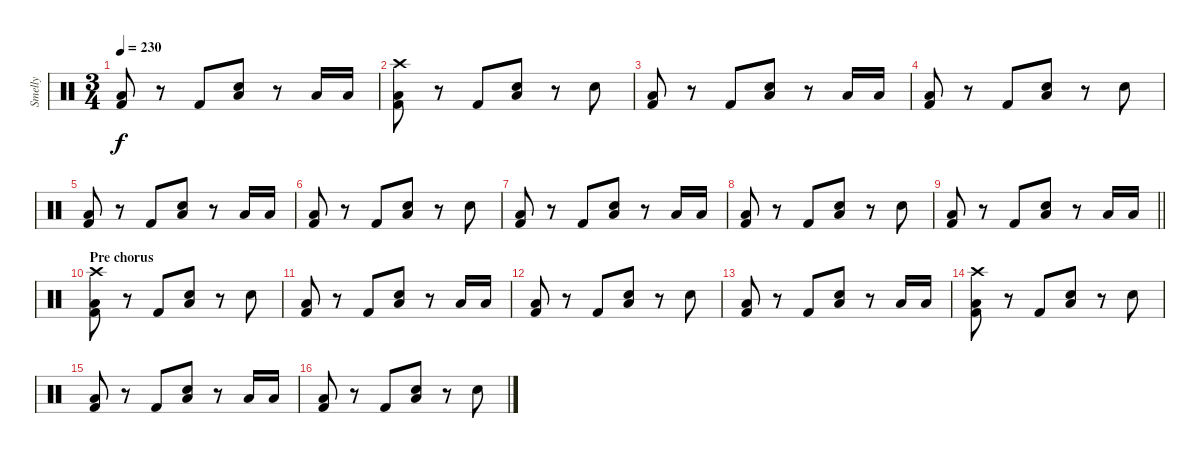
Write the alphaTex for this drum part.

\track ("Smelly" "Smelly") {instrument percussion}
\staff {score}
\articulation defaults
\ts (3 4)
\tempo 230
\clef neutral
\ks c
("Low Floor Tom (hit)" "Kick (hit) 2").8{dy f} r.8 "Kick (hit) 2".8 ("Low Floor Tom (hit)" "Electric Snare (hit)").8 r.8 "Low Floor Tom (hit)".16 "Low Floor Tom (hit)".16 |
("Crash high (hit)" "Low Floor Tom (hit)" "Kick (hit) 2").8 r.8 "Kick (hit) 2".8 ("Low Floor Tom (hit)" "Electric Snare (hit)").8 r.8 "Electric Snare (hit)".8 |
("Low Floor Tom (hit)" "Kick (hit) 2").8 r.8 "Kick (hit) 2".8 ("Low Floor Tom (hit)" "Electric Snare (hit)").8 r.8 "Low Floor Tom (hit)".16 "Low Floor Tom (hit)".16 |
("Low Floor Tom (hit)" "Kick (hit) 2").8 r.8 "Kick (hit) 2".8 ("Low Floor Tom (hit)" "Electric Snare (hit)").8 r.8 "Electric Snare (hit)".8 |
("Low Floor Tom (hit)" "Kick (hit) 2").8 r.8 "Kick (hit) 2".8 ("Low Floor Tom (hit)" "Electric Snare (hit)").8 r.8 "Low Floor Tom (hit)".16 "Low Floor Tom (hit)".16 |
("Low Floor Tom (hit)" "Kick (hit) 2").8 r.8 "Kick (hit) 2".8 ("Low Floor Tom (hit)" "Electric Snare (hit)").8 r.8 "Electric Snare (hit)".8 |
("Low Floor Tom (hit)" "Kick (hit) 2").8 r.8 "Kick (hit) 2".8 ("Low Floor Tom (hit)" "Electric Snare (hit)").8 r.8 "Low Floor Tom (hit)".16 "Low Floor Tom (hit)".16 |
("Low Floor Tom (hit)" "Kick (hit) 2").8 r.8 "Kick (hit) 2".8 ("Low Floor Tom (hit)" "Electric Snare (hit)").8 r.8 "Electric Snare (hit)".8 |
\barLineRight lightlight
("Low Floor Tom (hit)" "Kick (hit) 2").8 r.8 "Kick (hit) 2".8 ("Low Floor Tom (hit)" "Electric Snare (hit)").8 r.8 "Low Floor Tom (hit)".16 "Low Floor Tom (hit)".16 |
\section ("" "Pre chorus")
("Crash high (hit)" "Low Floor Tom (hit)" "Kick (hit) 2").8 r.8 "Kick (hit) 2".8 ("Low Floor Tom (hit)" "Electric Snare (hit)").8 r.8 "Electric Snare (hit)".8 |
("Low Floor Tom (hit)" "Kick (hit) 2").8 r.8 "Kick (hit) 2".8 ("Low Floor Tom (hit)" "Electric Snare (hit)").8 r.8 "Low Floor Tom (hit)".16 "Low Floor Tom (hit)".16 |
("Low Floor Tom (hit)" "Kick (hit) 2").8 r.8 "Kick (hit) 2".8 ("Low Floor Tom (hit)" "Electric Snare (hit)").8 r.8 "Electric Snare (hit)".8 |
("Low Floor Tom (hit)" "Kick (hit) 2").8 r.8 "Kick (hit) 2".8 ("Low Floor Tom (hit)" "Electric Snare (hit)").8 r.8 "Low Floor Tom (hit)".16 "Low Floor Tom (hit)".16 |
("Crash high (hit)" "Low Floor Tom (hit)" "Kick (hit) 2").8 r.8 "Kick (hit) 2".8 ("Low Floor Tom (hit)" "Electric Snare (hit)").8 r.8 "Electric Snare (hit)".8 |
("Low Floor Tom (hit)" "Kick (hit) 2").8 r.8 "Kick (hit) 2".8 ("Low Floor Tom (hit)" "Electric Snare (hit)").8 r.8 "Low Floor Tom (hit)".16 "Low Floor Tom (hit)".16 |
("Low Floor Tom (hit)" "Kick (hit) 2").8 r.8 "Kick (hit) 2".8 ("Low Floor Tom (hit)" "Electric Snare (hit)").8 r.8 "Electric Snare (hit)".8
